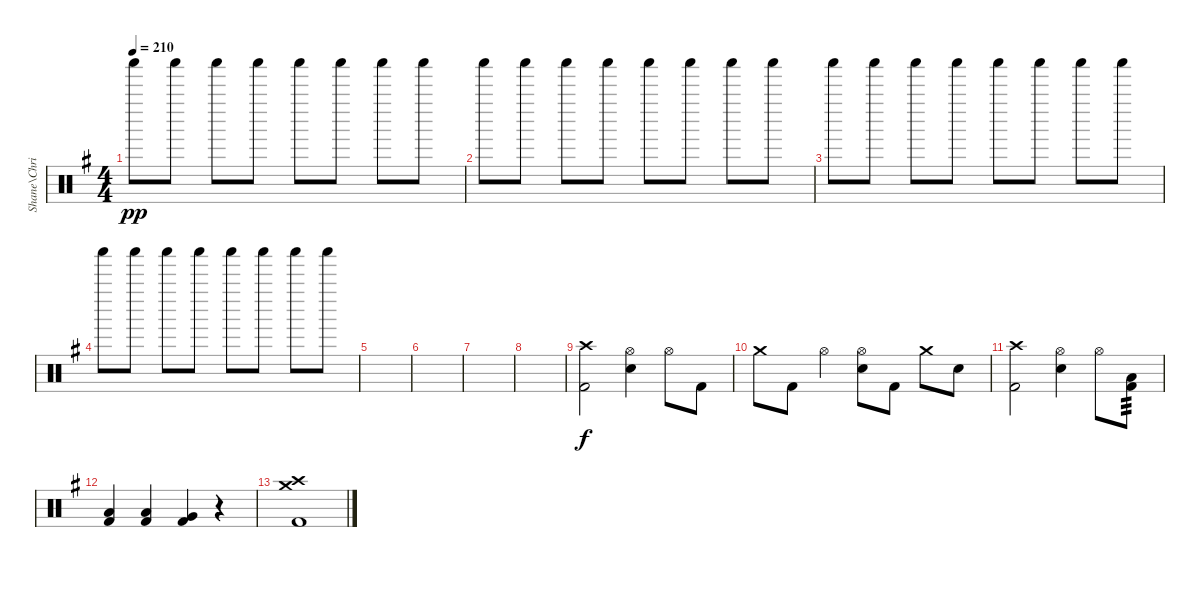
\track ("Shane\\Chris - Percussion" "Shane\\Chri") {instrument percussion}
\staff {score}
\articulation defaults
\ts (4 4)
\tempo 210
\clef neutral
\ks g "Shaker (hit)".8{dy pp} "Shaker (hit)".8 "Shaker (hit)".8 "Shaker (hit)".8 "Shaker (hit)".8 "Shaker (hit)".8 "Shaker (hit)".8 "Shaker (hit)".8
|
"Shaker (hit)".8 "Shaker (hit)".8 "Shaker (hit)".8 "Shaker (hit)".8 "Shaker (hit)".8 "Shaker (hit)".8 "Shaker (hit)".8 "Shaker (hit)".8 |
"Shaker (hit)".8 "Shaker (hit)".8 "Shaker (hit)".8 "Shaker (hit)".8 "Shaker (hit)".8 "Shaker (hit)".8 "Shaker (hit)".8 "Shaker (hit)".8 |
"Shaker (hit)".8 "Shaker (hit)".8 "Shaker (hit)".8 "Shaker (hit)".8 "Shaker (hit)".8 "Shaker (hit)".8 "Shaker (hit)".8 "Shaker (hit)".8 |
|
|
|
|
("Crash high (hit)" "Kick (hit) 2").2{dy f} ("Hi-Hat (open)" "Electric Snare (hit)").4 "Hi-Hat (open)".8 "Kick (hit) 2".8 |
"Crash medium (hit)".8 "Kick (hit) 2".8 "Hi-Hat (open)".4 ("Hi-Hat (open)" "Electric Snare (hit)").8 "Kick (hit) 2".8 "Crash medium (hit)".8 "Electric Snare (hit)".8 |
("Crash high (hit)" "Kick (hit) 2").2 ("Hi-Hat (open)" "Electric Snare (hit)").4 "Hi-Hat (open)".8 ("Low Tom (hit)" "Kick (hit) 2").8{tp 3} |
("Low Tom (hit)" "Kick (hit) 2").4 ("Low Tom (hit)" "Kick (hit) 2").4 ("Very Low Tom (hit)" "Kick (hit) 2").4 r.4 |
("Crash high (hit)" "Crash medium (hit)" "Kick (hit) 2").1
